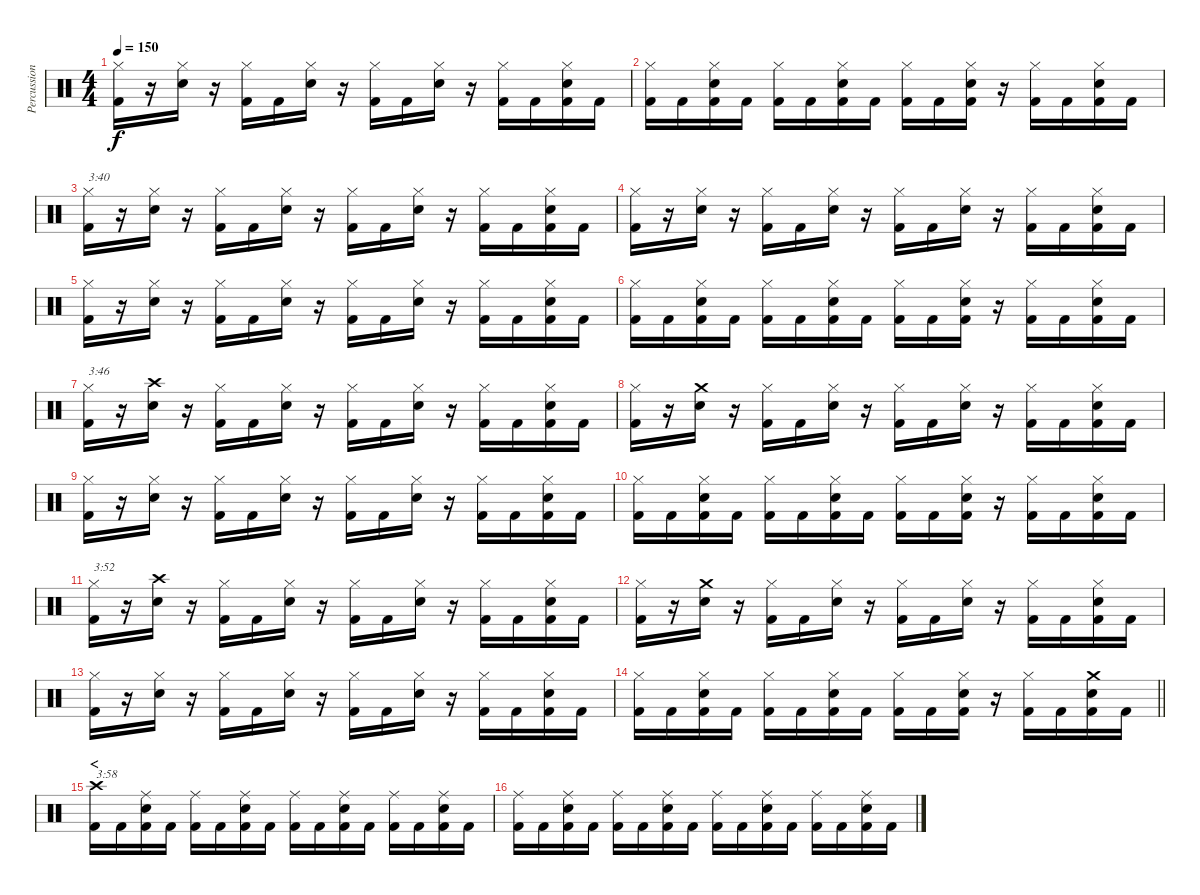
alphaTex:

\track ("Percussion" "Percussion") {instrument percussion}
\staff {score}
\articulation defaults
\ts (4 4)
\tempo 150
\clef neutral
\ks c
("Hi-Hat (closed)" "Kick (hit) 2").16{dy f} r.16 ("Hi-Hat (closed)" "Electric Snare (hit)").16 r.16 ("Hi-Hat (closed)" "Kick (hit) 2").16 "Kick (hit) 2".16 ("Hi-Hat (closed)" "Electric Snare (hit)").16 r.16 ("Hi-Hat (closed)" "Kick (hit) 2").16 "Kick (hit) 2".16 ("Hi-Hat (closed)" "Electric Snare (hit)").16 r.16 ("Hi-Hat (closed)" "Kick (hit) 2").16 "Kick (hit) 2".16 ("Hi-Hat (closed)" "Electric Snare (hit)" "Kick (hit) 2").16 "Kick (hit) 2".16 |
("Hi-Hat (closed)" "Kick (hit) 2").16 "Kick (hit) 2".16 ("Hi-Hat (closed)" "Electric Snare (hit)" "Kick (hit) 2").16 "Kick (hit) 2".16 ("Hi-Hat (closed)" "Kick (hit) 2").16 "Kick (hit) 2".16 ("Hi-Hat (closed)" "Electric Snare (hit)" "Kick (hit) 2").16 "Kick (hit) 2".16 ("Hi-Hat (closed)" "Kick (hit) 2").16 "Kick (hit) 2".16 ("Hi-Hat (closed)" "Electric Snare (hit)" "Kick (hit) 2").16 r.16 ("Hi-Hat (closed)" "Kick (hit) 2").16 "Kick (hit) 2".16 ("Hi-Hat (closed)" "Electric Snare (hit)" "Kick (hit) 2").16 "Kick (hit) 2".16 |
("Hi-Hat (closed)" "Kick (hit) 2").16{txt "3:40"} r.16 ("Hi-Hat (closed)" "Electric Snare (hit)").16 r.16 ("Hi-Hat (closed)" "Kick (hit) 2").16 "Kick (hit) 2".16 ("Hi-Hat (closed)" "Electric Snare (hit)").16 r.16 ("Hi-Hat (closed)" "Kick (hit) 2").16 "Kick (hit) 2".16 ("Hi-Hat (closed)" "Electric Snare (hit)").16 r.16 ("Hi-Hat (closed)" "Kick (hit) 2").16 "Kick (hit) 2".16 ("Hi-Hat (closed)" "Electric Snare (hit)" "Kick (hit) 2").16 "Kick (hit) 2".16 |
("Hi-Hat (closed)" "Kick (hit) 2").16 r.16 ("Hi-Hat (closed)" "Electric Snare (hit)").16 r.16 ("Hi-Hat (closed)" "Kick (hit) 2").16 "Kick (hit) 2".16 ("Hi-Hat (closed)" "Electric Snare (hit)").16 r.16 ("Hi-Hat (closed)" "Kick (hit) 2").16 "Kick (hit) 2".16 ("Hi-Hat (closed)" "Electric Snare (hit)").16 r.16 ("Hi-Hat (closed)" "Kick (hit) 2").16 "Kick (hit) 2".16 ("Hi-Hat (closed)" "Electric Snare (hit)" "Kick (hit) 2").16 "Kick (hit) 2".16 |
("Hi-Hat (closed)" "Kick (hit) 2").16 r.16 ("Hi-Hat (closed)" "Electric Snare (hit)").16 r.16 ("Hi-Hat (closed)" "Kick (hit) 2").16 "Kick (hit) 2".16 ("Hi-Hat (closed)" "Electric Snare (hit)").16 r.16 ("Hi-Hat (closed)" "Kick (hit) 2").16 "Kick (hit) 2".16 ("Hi-Hat (closed)" "Electric Snare (hit)").16 r.16 ("Hi-Hat (closed)" "Kick (hit) 2").16 "Kick (hit) 2".16 ("Hi-Hat (closed)" "Electric Snare (hit)" "Kick (hit) 2").16 "Kick (hit) 2".16 |
("Hi-Hat (closed)" "Kick (hit) 2").16 "Kick (hit) 2".16 ("Hi-Hat (closed)" "Electric Snare (hit)" "Kick (hit) 2").16 "Kick (hit) 2".16 ("Hi-Hat (closed)" "Kick (hit) 2").16 "Kick (hit) 2".16 ("Hi-Hat (closed)" "Electric Snare (hit)" "Kick (hit) 2").16 "Kick (hit) 2".16 ("Hi-Hat (closed)" "Kick (hit) 2").16 "Kick (hit) 2".16 ("Hi-Hat (closed)" "Electric Snare (hit)" "Kick (hit) 2").16 r.16 ("Hi-Hat (closed)" "Kick (hit) 2").16 "Kick (hit) 2".16 ("Hi-Hat (closed)" "Electric Snare (hit)" "Kick (hit) 2").16 "Kick (hit) 2".16 |
("Hi-Hat (closed)" "Kick (hit) 2").16{txt "3:46"} r.16 ("Crash high (hit)" "Electric Snare (hit)").16 r.16 ("Hi-Hat (closed)" "Kick (hit) 2").16 "Kick (hit) 2".16 ("Hi-Hat (closed)" "Electric Snare (hit)").16 r.16 ("Hi-Hat (closed)" "Kick (hit) 2").16 "Kick (hit) 2".16 ("Hi-Hat (closed)" "Electric Snare (hit)").16 r.16 ("Hi-Hat (closed)" "Kick (hit) 2").16 "Kick (hit) 2".16 ("Hi-Hat (closed)" "Electric Snare (hit)" "Kick (hit) 2").16 "Kick (hit) 2".16 |
("Hi-Hat (closed)" "Kick (hit) 2").16 r.16 ("Crash medium (hit)" "Electric Snare (hit)").16 r.16 ("Hi-Hat (closed)" "Kick (hit) 2").16 "Kick (hit) 2".16 ("Hi-Hat (closed)" "Electric Snare (hit)").16 r.16 ("Hi-Hat (closed)" "Kick (hit) 2").16 "Kick (hit) 2".16 ("Hi-Hat (closed)" "Electric Snare (hit)").16 r.16 ("Hi-Hat (closed)" "Kick (hit) 2").16 "Kick (hit) 2".16 ("Hi-Hat (closed)" "Electric Snare (hit)" "Kick (hit) 2").16 "Kick (hit) 2".16 |
("Hi-Hat (closed)" "Kick (hit) 2").16 r.16 ("Hi-Hat (closed)" "Electric Snare (hit)").16 r.16 ("Hi-Hat (closed)" "Kick (hit) 2").16 "Kick (hit) 2".16 ("Hi-Hat (closed)" "Electric Snare (hit)").16 r.16 ("Hi-Hat (closed)" "Kick (hit) 2").16 "Kick (hit) 2".16 ("Hi-Hat (closed)" "Electric Snare (hit)").16 r.16 ("Hi-Hat (closed)" "Kick (hit) 2").16 "Kick (hit) 2".16 ("Hi-Hat (closed)" "Electric Snare (hit)" "Kick (hit) 2").16 "Kick (hit) 2".16 |
("Hi-Hat (closed)" "Kick (hit) 2").16 "Kick (hit) 2".16 ("Hi-Hat (closed)" "Electric Snare (hit)" "Kick (hit) 2").16 "Kick (hit) 2".16 ("Hi-Hat (closed)" "Kick (hit) 2").16 "Kick (hit) 2".16 ("Hi-Hat (closed)" "Electric Snare (hit)" "Kick (hit) 2").16 "Kick (hit) 2".16 ("Hi-Hat (closed)" "Kick (hit) 2").16 "Kick (hit) 2".16 ("Hi-Hat (closed)" "Electric Snare (hit)" "Kick (hit) 2").16 r.16 ("Hi-Hat (closed)" "Kick (hit) 2").16 "Kick (hit) 2".16 ("Hi-Hat (closed)" "Electric Snare (hit)" "Kick (hit) 2").16 "Kick (hit) 2".16 |
("Hi-Hat (closed)" "Kick (hit) 2").16{txt "3:52"} r.16 ("Crash high (hit)" "Electric Snare (hit)").16 r.16 ("Hi-Hat (closed)" "Kick (hit) 2").16 "Kick (hit) 2".16 ("Hi-Hat (closed)" "Electric Snare (hit)").16 r.16 ("Hi-Hat (closed)" "Kick (hit) 2").16 "Kick (hit) 2".16 ("Hi-Hat (closed)" "Electric Snare (hit)").16 r.16 ("Hi-Hat (closed)" "Kick (hit) 2").16 "Kick (hit) 2".16 ("Hi-Hat (closed)" "Electric Snare (hit)" "Kick (hit) 2").16 "Kick (hit) 2".16 |
("Hi-Hat (closed)" "Kick (hit) 2").16 r.16 ("Crash medium (hit)" "Electric Snare (hit)").16 r.16 ("Hi-Hat (closed)" "Kick (hit) 2").16 "Kick (hit) 2".16 ("Hi-Hat (closed)" "Electric Snare (hit)").16 r.16 ("Hi-Hat (closed)" "Kick (hit) 2").16 "Kick (hit) 2".16 ("Hi-Hat (closed)" "Electric Snare (hit)").16 r.16 ("Hi-Hat (closed)" "Kick (hit) 2").16 "Kick (hit) 2".16 ("Hi-Hat (closed)" "Electric Snare (hit)" "Kick (hit) 2").16 "Kick (hit) 2".16 |
("Hi-Hat (closed)" "Kick (hit) 2").16 r.16 ("Hi-Hat (closed)" "Electric Snare (hit)").16 r.16 ("Hi-Hat (closed)" "Kick (hit) 2").16 "Kick (hit) 2".16 ("Hi-Hat (closed)" "Electric Snare (hit)").16 r.16 ("Hi-Hat (closed)" "Kick (hit) 2").16 "Kick (hit) 2".16 ("Hi-Hat (closed)" "Electric Snare (hit)").16 r.16 ("Hi-Hat (closed)" "Kick (hit) 2").16 "Kick (hit) 2".16 ("Hi-Hat (closed)" "Electric Snare (hit)" "Kick (hit) 2").16 "Kick (hit) 2".16 |
\barLineRight lightlight
("Hi-Hat (closed)" "Kick (hit) 2").16 "Kick (hit) 2".16 ("Hi-Hat (closed)" "Electric Snare (hit)" "Kick (hit) 2").16 "Kick (hit) 2".16 ("Hi-Hat (closed)" "Kick (hit) 2").16 "Kick (hit) 2".16 ("Hi-Hat (closed)" "Electric Snare (hit)" "Kick (hit) 2").16 "Kick (hit) 2".16 ("Hi-Hat (closed)" "Kick (hit) 2").16 "Kick (hit) 2".16 ("Hi-Hat (closed)" "Electric Snare (hit)" "Kick (hit) 2").16 r.16 ("Hi-Hat (closed)" "Kick (hit) 2").16 "Kick (hit) 2".16 ("Crash medium (hit)" "Electric Snare (hit)" "Kick (hit) 2").16 "Kick (hit) 2".16 |
\section ("" "<")
("Crash high (hit)" "Kick (hit) 2").16{txt "3:58"} "Kick (hit) 2".16 ("Ride (middle)" "Electric Snare (hit)" "Kick (hit) 2").16 "Kick (hit) 2".16 ("Ride (middle)" "Kick (hit) 2").16 "Kick (hit) 2".16 ("Ride (middle)" "Electric Snare (hit)" "Kick (hit) 2").16 "Kick (hit) 2".16 ("Ride (middle)" "Kick (hit) 2").16 "Kick (hit) 2".16 ("Ride (middle)" "Electric Snare (hit)" "Kick (hit) 2").16 "Kick (hit) 2".16 ("Ride (middle)" "Kick (hit) 2").16 "Kick (hit) 2".16 ("Ride (middle)" "Electric Snare (hit)" "Kick (hit) 2").16 "Kick (hit) 2".16 |
("Ride (middle)" "Kick (hit) 2").16 "Kick (hit) 2".16 ("Ride (middle)" "Electric Snare (hit)" "Kick (hit) 2").16 "Kick (hit) 2".16 ("Ride (middle)" "Kick (hit) 2").16 "Kick (hit) 2".16 ("Ride (middle)" "Electric Snare (hit)" "Kick (hit) 2").16 "Kick (hit) 2".16 ("Ride (middle)" "Kick (hit) 2").16 "Kick (hit) 2".16 ("Ride (middle)" "Electric Snare (hit)" "Kick (hit) 2").16 "Kick (hit) 2".16 ("Ride (middle)" "Kick (hit) 2").16 "Kick (hit) 2".16 ("Ride (middle)" "Electric Snare (hit)" "Kick (hit) 2").16 "Kick (hit) 2".16
